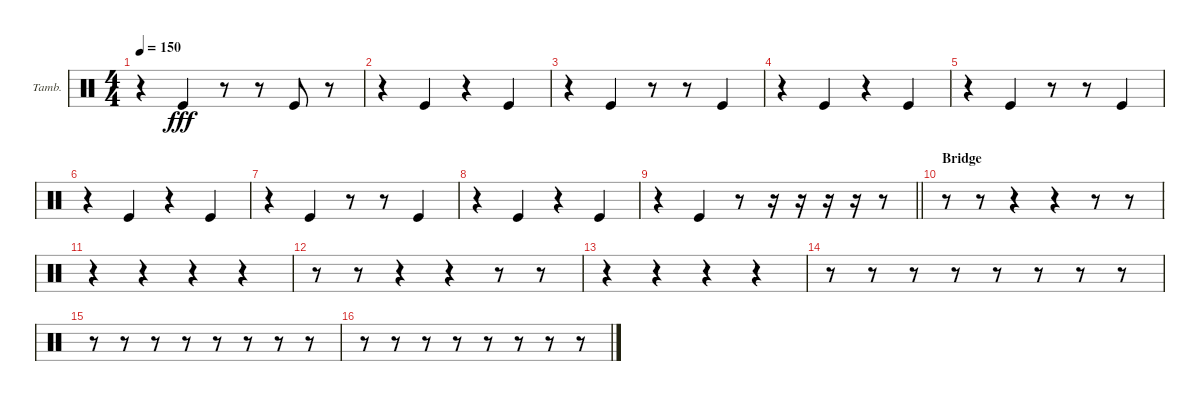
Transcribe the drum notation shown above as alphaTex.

\bracketExtendMode groupsimilarinstruments
\firstSystemTrackNameOrientation horizontal
\otherSystemsTrackNameOrientation horizontal
\track ("Tambourine" "Tamb.") {instrument percussion}
\staff {score}
\articulation defaults
\ts (4 4)
\tempo 150
\clef neutral
\ks c
r.4{dy fff} "Kick (hit)".4 r.8 r.8 "Kick (hit)".8 r.8 |
r.4 "Kick (hit)".4 r.4 "Kick (hit)".4 |
r.4 "Kick (hit)".4 r.8 r.8 "Kick (hit)".4 |
r.4 "Kick (hit)".4 r.4 "Kick (hit)".4 |
r.4 "Kick (hit)".4 r.8 r.8 "Kick (hit)".4 |
r.4 "Kick (hit)".4 r.4 "Kick (hit)".4 |
r.4 "Kick (hit)".4 r.8 r.8 "Kick (hit)".4 |
r.4 "Kick (hit)".4 r.4 "Kick (hit)".4 |
\barLineRight lightlight
r.4 "Kick (hit)".4 r.8 r.16 r.16 r.16 r.16 r.8 |
\section ("" "Bridge")
r.8 r.8 r.4 r.4 r.8 r.8 |
r.4 r.4 r.4 r.4 |
r.8 r.8 r.4 r.4 r.8 r.8 |
r.4 r.4 r.4 r.4 |
r.8 r.8 r.8 r.8 r.8 r.8 r.8 r.8 |
r.8 r.8 r.8 r.8 r.8 r.8 r.8 r.8 |
r.8 r.8 r.8 r.8 r.8 r.8 r.8 r.8
